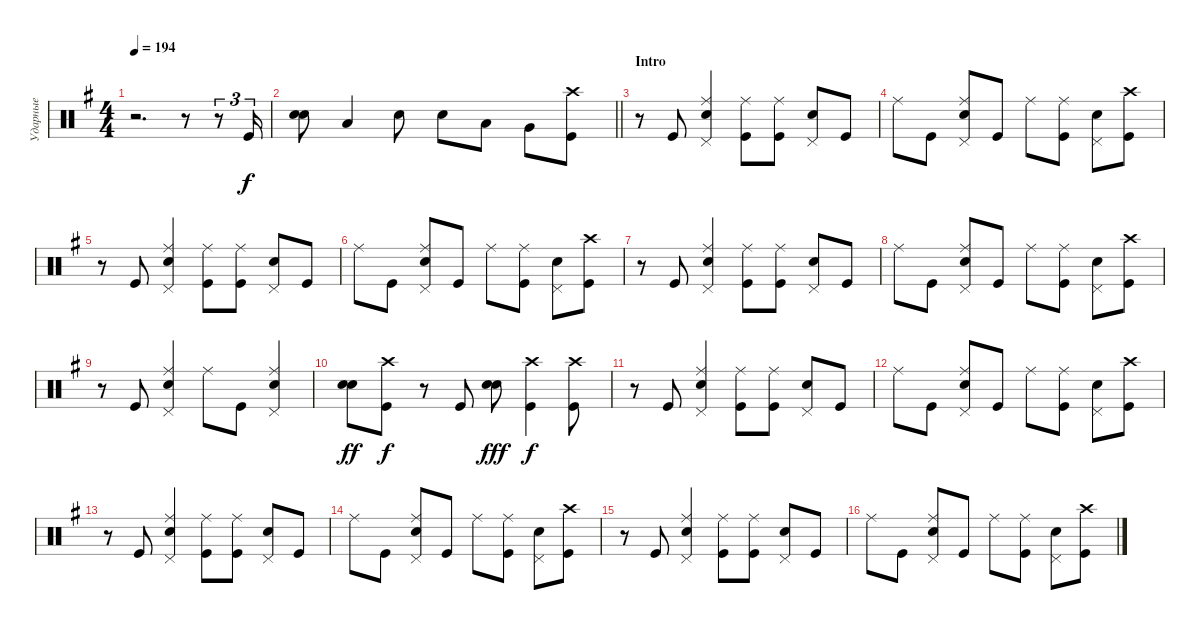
\track ("Ударные" "Ударные") {instrument percussion}
\staff {score}
\articulation defaults
\ts (4 4)
\tempo 194
\clef neutral
\ks eminor
r.2{d dy f} r.8 r.8{tu (3 2)} "Kick (hit)".16{tu (3 2)} |
\barLineRight lightlight
("Snare (hit) 2" "Snare (hit) 2").8{bd 480} "Low Tom (hit)".4 "Snare (hit) 2".8 "Snare (hit) 2".8 "Low Tom (hit)".8 "Very Low Tom (hit)".8 ("Kick (hit)" "Crash high (hit)").8 |
\section ("" "Intro")
r.8 "Kick (hit)".8 ("Ride (middle)" "Snare (hit) 2" "Pedal Hi-Hat (hit)").4 ("Ride (middle)" "Kick (hit)").8 ("Ride (middle)" "Kick (hit)").8 ("Pedal Hi-Hat (hit)" "Snare (hit) 2").8 "Kick (hit)".8 |
"Ride (middle)".8 "Kick (hit)".8 ("Ride (middle)" "Snare (hit) 2" "Pedal Hi-Hat (hit)").8 "Kick (hit)".8 "Ride (middle)".8 ("Ride (middle)" "Kick (hit)").8 ("Pedal Hi-Hat (hit)" "Snare (hit) 2").8 ("Crash high (hit)" "Kick (hit)").8 |
r.8 "Kick (hit)".8 ("Ride (middle)" "Snare (hit) 2" "Pedal Hi-Hat (hit)").4 ("Ride (middle)" "Kick (hit)").8 ("Ride (middle)" "Kick (hit)").8 ("Pedal Hi-Hat (hit)" "Snare (hit) 2").8 "Kick (hit)".8 |
"Ride (middle)".8 "Kick (hit)".8 ("Ride (middle)" "Snare (hit) 2" "Pedal Hi-Hat (hit)").8 "Kick (hit)".8 "Ride (middle)".8 ("Ride (middle)" "Kick (hit)").8 ("Pedal Hi-Hat (hit)" "Snare (hit) 2").8 ("Crash high (hit)" "Kick (hit)").8 |
r.8 "Kick (hit)".8 ("Ride (middle)" "Snare (hit) 2" "Pedal Hi-Hat (hit)").4 ("Ride (middle)" "Kick (hit)").8 ("Ride (middle)" "Kick (hit)").8 ("Pedal Hi-Hat (hit)" "Snare (hit) 2").8 "Kick (hit)".8 |
"Ride (middle)".8 "Kick (hit)".8 ("Ride (middle)" "Snare (hit) 2" "Pedal Hi-Hat (hit)").8 "Kick (hit)".8 "Ride (middle)".8 ("Ride (middle)" "Kick (hit)").8 ("Pedal Hi-Hat (hit)" "Snare (hit) 2").8 ("Crash high (hit)" "Kick (hit)").8 |
r.8 "Kick (hit)".8 ("Ride (middle)" "Snare (hit) 2" "Pedal Hi-Hat (hit)").4 "Ride (middle)".8 "Kick (hit)".8 ("Pedal Hi-Hat (hit)" "Snare (hit) 2" "Ride (middle)").4 |
("Snare (hit) 2" "Snare (hit) 2").8{bd 240 dy ff} ("Kick (hit)" "Crash high (hit)").8{dy f} r.8 "Kick (hit)".8 ("Snare (hit) 2" "Snare (hit) 2").8{bd 240 dy fff} ("Kick (hit)" "Crash high (hit)").4{dy f} ("Kick (hit)" "Crash high (hit)").8 |
r.8 "Kick (hit)".8 ("Ride (middle)" "Snare (hit) 2" "Pedal Hi-Hat (hit)").4 ("Ride (middle)" "Kick (hit)").8 ("Ride (middle)" "Kick (hit)").8 ("Pedal Hi-Hat (hit)" "Snare (hit) 2").8 "Kick (hit)".8 |
"Ride (middle)".8 "Kick (hit)".8 ("Ride (middle)" "Snare (hit) 2" "Pedal Hi-Hat (hit)").8 "Kick (hit)".8 "Ride (middle)".8 ("Ride (middle)" "Kick (hit)").8 ("Pedal Hi-Hat (hit)" "Snare (hit) 2").8 ("Crash high (hit)" "Kick (hit)").8 |
r.8 "Kick (hit)".8 ("Ride (middle)" "Snare (hit) 2" "Pedal Hi-Hat (hit)").4 ("Ride (middle)" "Kick (hit)").8 ("Ride (middle)" "Kick (hit)").8 ("Pedal Hi-Hat (hit)" "Snare (hit) 2").8 "Kick (hit)".8 |
"Ride (middle)".8 "Kick (hit)".8 ("Ride (middle)" "Snare (hit) 2" "Pedal Hi-Hat (hit)").8 "Kick (hit)".8 "Ride (middle)".8 ("Ride (middle)" "Kick (hit)").8 ("Pedal Hi-Hat (hit)" "Snare (hit) 2").8 ("Crash high (hit)" "Kick (hit)").8 |
r.8 "Kick (hit)".8 ("Ride (middle)" "Snare (hit) 2" "Pedal Hi-Hat (hit)").4 ("Ride (middle)" "Kick (hit)").8 ("Ride (middle)" "Kick (hit)").8 ("Pedal Hi-Hat (hit)" "Snare (hit) 2").8 "Kick (hit)".8 |
"Ride (middle)".8 "Kick (hit)".8 ("Ride (middle)" "Snare (hit) 2" "Pedal Hi-Hat (hit)").8 "Kick (hit)".8 "Ride (middle)".8 ("Ride (middle)" "Kick (hit)").8 ("Pedal Hi-Hat (hit)" "Snare (hit) 2").8 ("Crash high (hit)" "Kick (hit)").8
